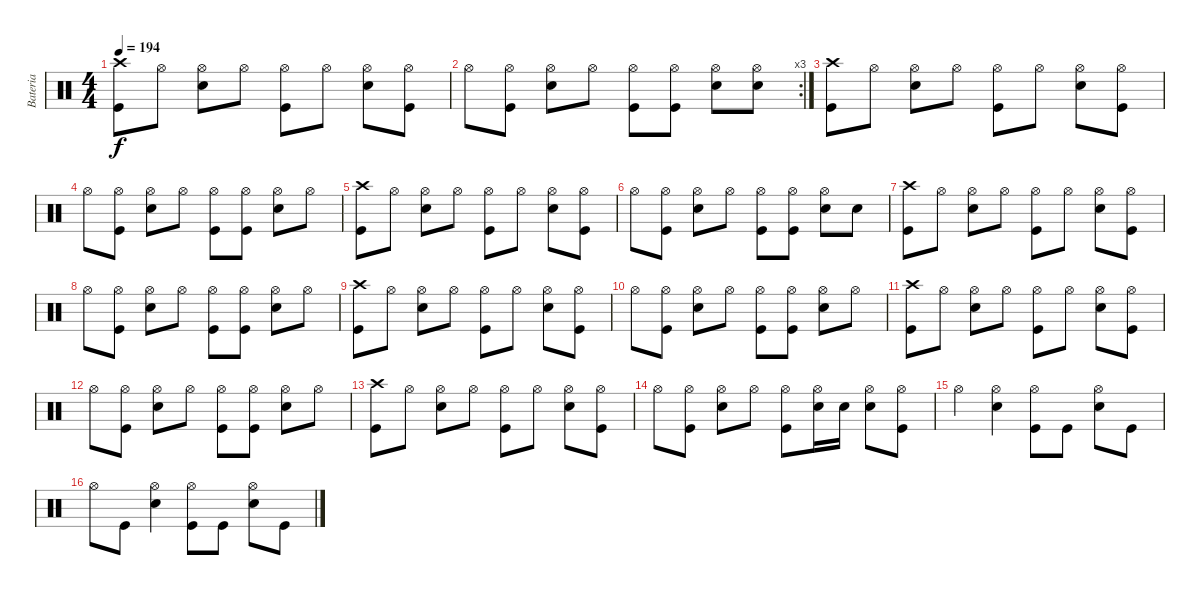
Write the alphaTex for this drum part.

\track ("Bateria" "Bateria") {instrument percussion}
\staff {score}
\articulation defaults
\ts (4 4)
\tempo 194
\clef neutral
\ks c
("Crash high (hit)" "Kick (hit)").8{dy f} "Hi-Hat (open)".8 ("Electric Snare (hit)" "Hi-Hat (open)").8 "Hi-Hat (open)".8 ("Hi-Hat (open)" "Kick (hit)").8 "Hi-Hat (open)".8 ("Electric Snare (hit)" "Hi-Hat (open)").8 ("Hi-Hat (open)" "Kick (hit)").8 |
\rc 3 "Hi-Hat (open)".8
("Hi-Hat (open)" "Kick (hit)").8 ("Electric Snare (hit)" "Hi-Hat (open)").8 "Hi-Hat (open)".8 ("Hi-Hat (open)" "Kick (hit)").8 ("Hi-Hat (open)" "Kick (hit)").8 ("Electric Snare (hit)" "Hi-Hat (open)").8 ("Electric Snare (hit)" "Hi-Hat (open)").8 |
("Crash high (hit)" "Kick (hit)").8 "Hi-Hat (open)".8 ("Electric Snare (hit)" "Hi-Hat (open)").8 "Hi-Hat (open)".8 ("Hi-Hat (open)" "Kick (hit)").8 "Hi-Hat (open)".8 ("Electric Snare (hit)" "Hi-Hat (open)").8 ("Hi-Hat (open)" "Kick (hit)").8 |
"Hi-Hat (open)".8 ("Hi-Hat (open)" "Kick (hit)").8 ("Electric Snare (hit)" "Hi-Hat (open)").8 "Hi-Hat (open)".8 ("Hi-Hat (open)" "Kick (hit)").8 ("Hi-Hat (open)" "Kick (hit)").8 ("Electric Snare (hit)" "Hi-Hat (open)").8 "Hi-Hat (open)".8 |
("Crash high (hit)" "Kick (hit)").8 "Hi-Hat (open)".8 ("Electric Snare (hit)" "Hi-Hat (open)").8 "Hi-Hat (open)".8 ("Hi-Hat (open)" "Kick (hit)").8 "Hi-Hat (open)".8 ("Electric Snare (hit)" "Hi-Hat (open)").8 ("Hi-Hat (open)" "Kick (hit)").8 |
"Hi-Hat (open)".8 ("Hi-Hat (open)" "Kick (hit)").8 ("Electric Snare (hit)" "Hi-Hat (open)").8 "Hi-Hat (open)".8 ("Hi-Hat (open)" "Kick (hit)").8 ("Hi-Hat (open)" "Kick (hit)").8 ("Electric Snare (hit)" "Hi-Hat (open)").8 "Snare (hit) 2".8 |
("Crash high (hit)" "Kick (hit)").8 "Hi-Hat (open)".8 ("Electric Snare (hit)" "Hi-Hat (open)").8 "Hi-Hat (open)".8 ("Hi-Hat (open)" "Kick (hit)").8 "Hi-Hat (open)".8 ("Electric Snare (hit)" "Hi-Hat (open)").8 ("Hi-Hat (open)" "Kick (hit)").8 |
"Hi-Hat (open)".8 ("Hi-Hat (open)" "Kick (hit)").8 ("Electric Snare (hit)" "Hi-Hat (open)").8 "Hi-Hat (open)".8 ("Hi-Hat (open)" "Kick (hit)").8 ("Hi-Hat (open)" "Kick (hit)").8 ("Electric Snare (hit)" "Hi-Hat (open)").8 "Hi-Hat (open)".8 |
("Crash high (hit)" "Kick (hit)").8 "Hi-Hat (open)".8 ("Electric Snare (hit)" "Hi-Hat (open)").8 "Hi-Hat (open)".8 ("Hi-Hat (open)" "Kick (hit)").8 "Hi-Hat (open)".8 ("Electric Snare (hit)" "Hi-Hat (open)").8 ("Hi-Hat (open)" "Kick (hit)").8 |
"Hi-Hat (open)".8 ("Hi-Hat (open)" "Kick (hit)").8 ("Electric Snare (hit)" "Hi-Hat (open)").8 "Hi-Hat (open)".8 ("Hi-Hat (open)" "Kick (hit)").8 ("Hi-Hat (open)" "Kick (hit)").8 ("Electric Snare (hit)" "Hi-Hat (open)").8 "Hi-Hat (open)".8 |
("Crash high (hit)" "Kick (hit)").8 "Hi-Hat (open)".8 ("Electric Snare (hit)" "Hi-Hat (open)").8 "Hi-Hat (open)".8 ("Hi-Hat (open)" "Kick (hit)").8 "Hi-Hat (open)".8 ("Electric Snare (hit)" "Hi-Hat (open)").8 ("Hi-Hat (open)" "Kick (hit)").8 |
"Hi-Hat (open)".8 ("Hi-Hat (open)" "Kick (hit)").8 ("Electric Snare (hit)" "Hi-Hat (open)").8 "Hi-Hat (open)".8 ("Hi-Hat (open)" "Kick (hit)").8 ("Hi-Hat (open)" "Kick (hit)").8 ("Electric Snare (hit)" "Hi-Hat (open)").8 "Hi-Hat (open)".8 |
("Crash high (hit)" "Kick (hit)").8 "Hi-Hat (open)".8 ("Electric Snare (hit)" "Hi-Hat (open)").8 "Hi-Hat (open)".8 ("Hi-Hat (open)" "Kick (hit)").8 "Hi-Hat (open)".8 ("Electric Snare (hit)" "Hi-Hat (open)").8 ("Hi-Hat (open)" "Kick (hit)").8 |
"Hi-Hat (open)".8 ("Hi-Hat (open)" "Kick (hit)").8 ("Electric Snare (hit)" "Hi-Hat (open)").8 "Hi-Hat (open)".8 ("Hi-Hat (open)" "Kick (hit)").8 ("Snare (hit) 2" "Hi-Hat (open)").16 "Snare (hit) 2".16 ("Electric Snare (hit)" "Hi-Hat (open)").8 ("Hi-Hat (open)" "Kick (hit)").8 |
"Hi-Hat (open)".4 ("Electric Snare (hit)" "Hi-Hat (open)").4 ("Hi-Hat (open)" "Kick (hit)").8 "Kick (hit)".8 ("Electric Snare (hit)" "Hi-Hat (open)").8 "Kick (hit)".8 |
"Hi-Hat (open)".8 "Kick (hit)".8 ("Electric Snare (hit)" "Hi-Hat (open)").4 ("Hi-Hat (open)" "Kick (hit)").8 "Kick (hit)".8 ("Electric Snare (hit)" "Hi-Hat (open)").8 "Kick (hit)".8
